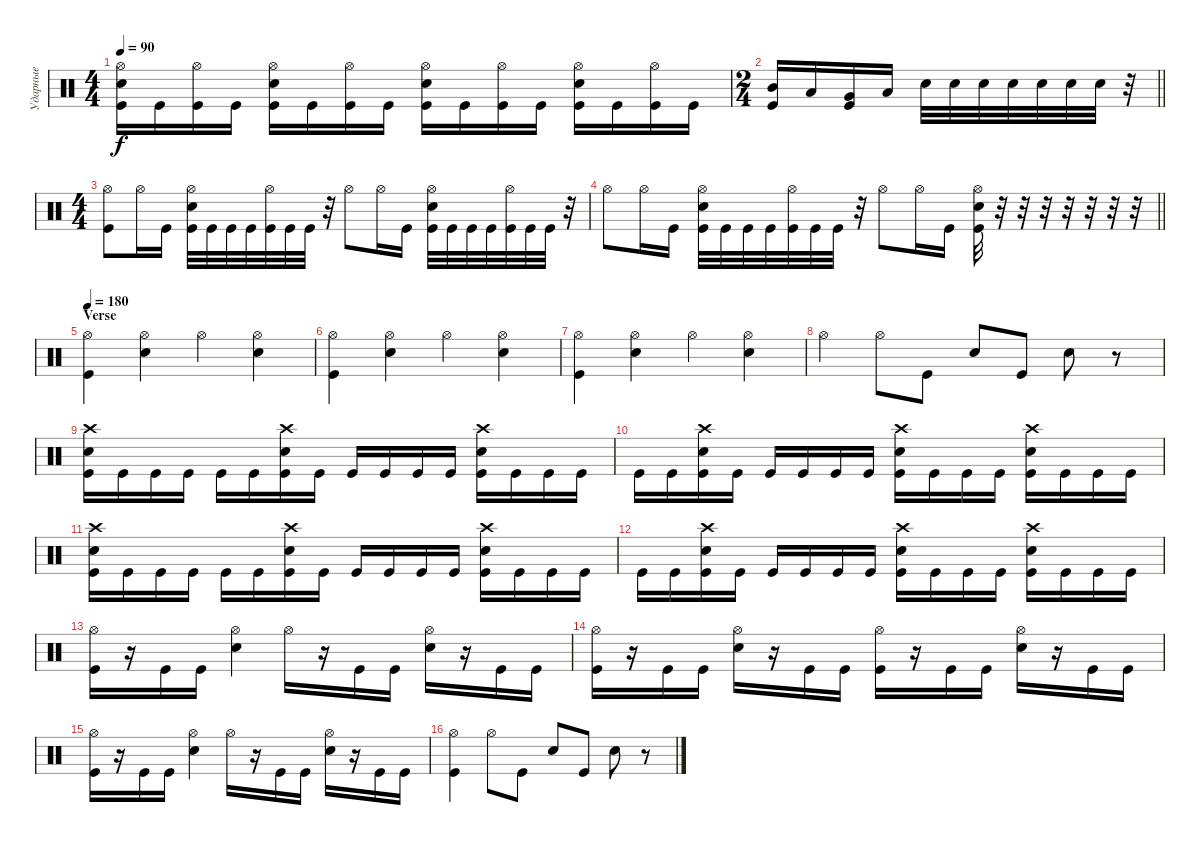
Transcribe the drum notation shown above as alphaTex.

\track ("Ударные" "Ударные") {instrument percussion}
\staff {score}
\articulation defaults
\ts (4 4)
\tempo 90
\clef neutral
\ks c
("Hi-Hat (open)" "Electric Snare (hit)" "Kick (hit)").16{dy f} "Kick (hit)".16 ("Hi-Hat (open)" "Kick (hit)").16 "Kick (hit)".16 ("Hi-Hat (open)" "Electric Snare (hit)" "Kick (hit)").16 "Kick (hit)".16 ("Hi-Hat (open)" "Kick (hit)").16 "Kick (hit)".16 ("Hi-Hat (open)" "Electric Snare (hit)" "Kick (hit)").16 "Kick (hit)".16 ("Hi-Hat (open)" "Kick (hit)").16 "Kick (hit)".16 ("Hi-Hat (open)" "Electric Snare (hit)" "Kick (hit)").16 "Kick (hit)".16 ("Hi-Hat (open)" "Kick (hit)").16 "Kick (hit)".16 |
\ts (2 4)
\barLineRight lightlight
("Mid Tom (hit)" "Kick (hit)").16 "Low Tom (hit)".16 ("Very Low Tom (hit)" "Kick (hit)").16 "Low Floor Tom (hit)".16 "Snare (hit) 2".32 "Snare (hit) 2".32 "Snare (hit) 2".32 "Snare (hit) 2".32 "Snare (hit) 2".32 "Snare (hit) 2".32 "Snare (hit) 2".32 r.32 |
\ts (4 4)
\section ("" "")
("Hi-Hat (open)" "Kick (hit)").8 "Hi-Hat (open)".16 "Kick (hit)".16 ("Hi-Hat (open)" "Electric Snare (hit)" "Kick (hit)").32 "Kick (hit)".32 "Kick (hit)".32 "Kick (hit)".32 ("Hi-Hat (open)" "Kick (hit)").32 "Kick (hit)".32 "Kick (hit)".32 r.32 "Hi-Hat (open)".8 "Hi-Hat (open)".16 "Kick (hit)".16 ("Hi-Hat (open)" "Electric Snare (hit)" "Kick (hit)").32 "Kick (hit)".32 "Kick (hit)".32 "Kick (hit)".32 ("Hi-Hat (open)" "Kick (hit)").32 "Kick (hit)".32 "Kick (hit)".32 r.32 |
\barLineRight lightlight "Hi-Hat (open)".8 "Hi-Hat (open)".16 "Kick (hit)".16
("Hi-Hat (open)" "Electric Snare (hit)" "Kick (hit)").32 "Kick (hit)".32 "Kick (hit)".32 "Kick (hit)".32 ("Hi-Hat (open)" "Kick (hit)").32 "Kick (hit)".32 "Kick (hit)".32 r.32 "Hi-Hat (open)".8 "Hi-Hat (open)".16 "Kick (hit)".16 ("Electric Snare (hit)" "Hi-Hat (open)" "Kick (hit)").32 r.32 r.32 r.32 r.32 r.32 r.32 r.32 |
\section ("" "Verse")
\tempo 180
("Hi-Hat (open)" "Kick (hit)").4 ("Hi-Hat (open)" "Electric Snare (hit)").4 "Hi-Hat (open)".4 ("Hi-Hat (open)" "Electric Snare (hit)").4 |
("Hi-Hat (open)" "Kick (hit)").4 ("Hi-Hat (open)" "Electric Snare (hit)").4 "Hi-Hat (open)".4 ("Hi-Hat (open)" "Electric Snare (hit)").4 |
("Hi-Hat (open)" "Kick (hit)").4 ("Hi-Hat (open)" "Electric Snare (hit)").4 "Hi-Hat (open)".4 ("Hi-Hat (open)" "Electric Snare (hit)").4 |
"Hi-Hat (open)".4 "Hi-Hat (open)".8 "Kick (hit)".8 "Electric Snare (hit)".8 "Kick (hit)".8 "Electric Snare (hit)".8 r.8 |
("Crash high (hit)" "Electric Snare (hit)" "Kick (hit)").16 "Kick (hit)".16 "Kick (hit)".16 "Kick (hit)".16 "Kick (hit)".16 "Kick (hit)".16 ("Crash high (hit)" "Electric Snare (hit)" "Kick (hit)").16 "Kick (hit)".16 "Kick (hit)".16 "Kick (hit)".16 "Kick (hit)".16 "Kick (hit)".16 ("Crash high (hit)" "Electric Snare (hit)" "Kick (hit)").16 "Kick (hit)".16 "Kick (hit)".16 "Kick (hit)".16 |
"Kick (hit)".16 "Kick (hit)".16 ("Crash high (hit)" "Electric Snare (hit)" "Kick (hit)").16 "Kick (hit)".16 "Kick (hit)".16 "Kick (hit)".16 "Kick (hit)".16 "Kick (hit)".16 ("Crash high (hit)" "Electric Snare (hit)" "Kick (hit)").16 "Kick (hit)".16 "Kick (hit)".16 "Kick (hit)".16 ("Crash high (hit)" "Electric Snare (hit)" "Kick (hit)").16 "Kick (hit)".16 "Kick (hit)".16 "Kick (hit)".16 |
("Crash high (hit)" "Electric Snare (hit)" "Kick (hit)").16 "Kick (hit)".16 "Kick (hit)".16 "Kick (hit)".16 "Kick (hit)".16 "Kick (hit)".16 ("Crash high (hit)" "Electric Snare (hit)" "Kick (hit)").16 "Kick (hit)".16 "Kick (hit)".16 "Kick (hit)".16 "Kick (hit)".16 "Kick (hit)".16 ("Crash high (hit)" "Electric Snare (hit)" "Kick (hit)").16 "Kick (hit)".16 "Kick (hit)".16 "Kick (hit)".16 |
"Kick (hit)".16 "Kick (hit)".16 ("Crash high (hit)" "Electric Snare (hit)" "Kick (hit)").16 "Kick (hit)".16 "Kick (hit)".16 "Kick (hit)".16 "Kick (hit)".16 "Kick (hit)".16 ("Crash high (hit)" "Electric Snare (hit)" "Kick (hit)").16 "Kick (hit)".16 "Kick (hit)".16 "Kick (hit)".16 ("Crash high (hit)" "Electric Snare (hit)" "Kick (hit)").16 "Kick (hit)".16 "Kick (hit)".16 "Kick (hit)".16 |
("Hi-Hat (open)" "Kick (hit)").16 r.16 "Kick (hit)".16 "Kick (hit)".16 ("Hi-Hat (open)" "Electric Snare (hit)").4 "Hi-Hat (open)".16 r.16 "Kick (hit)".16 "Kick (hit)".16 ("Hi-Hat (open)" "Electric Snare (hit)").16 r.16 "Kick (hit)".16 "Kick (hit)".16 |
("Hi-Hat (open)" "Kick (hit)").16 r.16 "Kick (hit)".16 "Kick (hit)".16 ("Hi-Hat (open)" "Electric Snare (hit)").16 r.16 "Kick (hit)".16 "Kick (hit)".16 ("Hi-Hat (open)" "Kick (hit)").16 r.16 "Kick (hit)".16 "Kick (hit)".16 ("Hi-Hat (open)" "Electric Snare (hit)").16 r.16 "Kick (hit)".16 "Kick (hit)".16 |
("Hi-Hat (open)" "Kick (hit)").16 r.16 "Kick (hit)".16 "Kick (hit)".16 ("Hi-Hat (open)" "Electric Snare (hit)").4 "Hi-Hat (open)".16 r.16 "Kick (hit)".16 "Kick (hit)".16 ("Hi-Hat (open)" "Electric Snare (hit)").16 r.16 "Kick (hit)".16 "Kick (hit)".16 |
("Hi-Hat (open)" "Kick (hit)").4 "Hi-Hat (open)".8 "Kick (hit)".8 "Electric Snare (hit)".8 "Kick (hit)".8 "Electric Snare (hit)".8 r.8
